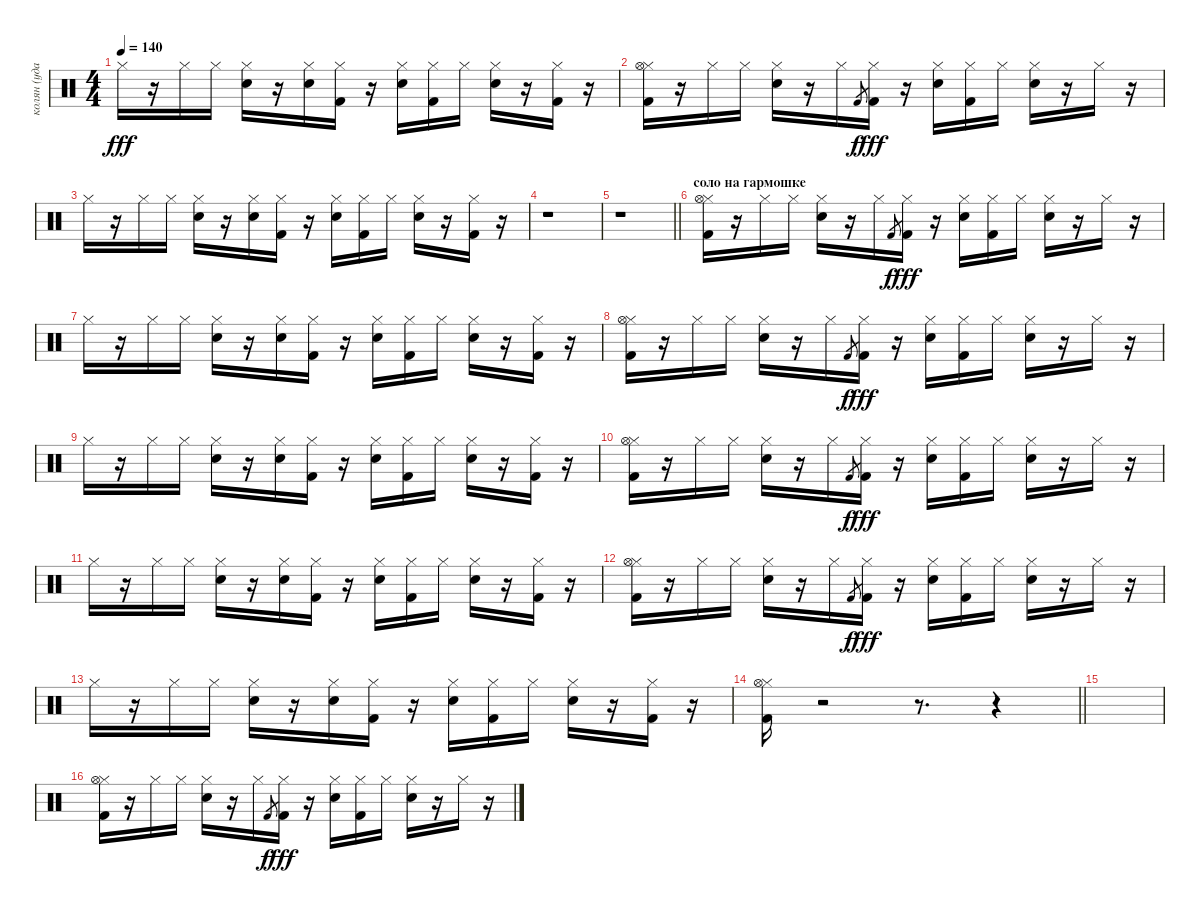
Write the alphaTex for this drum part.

\track ("колян (ударные)" "колян (уда") {instrument percussion}
\staff {score}
\articulation defaults
\ts (4 4)
\tempo 140
\clef neutral
\ks c "Hi-Hat (closed)".16{dy fff}
r.16 "Hi-Hat (closed)".16 "Hi-Hat (closed)".16 ("Hi-Hat (closed)" "Electric Snare (hit)").16 r.16 ("Hi-Hat (closed)" "Electric Snare (hit)").16 ("Hi-Hat (closed)" "Kick (hit) 2").16 r.16 ("Hi-Hat (closed)" "Electric Snare (hit)").16 ("Hi-Hat (closed)" "Kick (hit) 2").16 "Hi-Hat (closed)".16 ("Hi-Hat (closed)" "Electric Snare (hit)").16 r.16 ("Hi-Hat (closed)" "Kick (hit) 2").16 r.16 |
("Hi-Hat (closed)" "Hi-Hat (open)" "Kick (hit) 2").16 r.16 "Hi-Hat (closed)".16 "Hi-Hat (closed)".16 ("Hi-Hat (closed)" "Electric Snare (hit)").16 r.16 "Hi-Hat (closed)".16 "Kick (hit) 2".8{gr dy f} ("Hi-Hat (closed)" "Kick (hit) 2").16{dy fff} r.16 ("Hi-Hat (closed)" "Electric Snare (hit)").16 ("Hi-Hat (closed)" "Kick (hit) 2").16 "Hi-Hat (closed)".16 ("Hi-Hat (closed)" "Electric Snare (hit)").16 r.16 "Hi-Hat (closed)".16 r.16 |
"Hi-Hat (closed)".16 r.16 "Hi-Hat (closed)".16 "Hi-Hat (closed)".16 ("Hi-Hat (closed)" "Electric Snare (hit)").16 r.16 ("Hi-Hat (closed)" "Electric Snare (hit)").16 ("Hi-Hat (closed)" "Kick (hit) 2").16 r.16 ("Hi-Hat (closed)" "Electric Snare (hit)").16 ("Hi-Hat (closed)" "Kick (hit) 2").16 "Hi-Hat (closed)".16 ("Hi-Hat (closed)" "Electric Snare (hit)").16 r.16 ("Hi-Hat (closed)" "Kick (hit) 2").16 r.16 |
r.1 |
\barLineRight lightlight
r.1 |
\section ("" "соло на гармошке")
("Hi-Hat (closed)" "Hi-Hat (open)" "Kick (hit) 2").16 r.16 "Hi-Hat (closed)".16 "Hi-Hat (closed)".16 ("Hi-Hat (closed)" "Electric Snare (hit)").16 r.16 "Hi-Hat (closed)".16 "Kick (hit) 2".8{gr dy f} ("Hi-Hat (closed)" "Kick (hit) 2").16{dy fff} r.16 ("Hi-Hat (closed)" "Electric Snare (hit)").16 ("Hi-Hat (closed)" "Kick (hit) 2").16 "Hi-Hat (closed)".16 ("Hi-Hat (closed)" "Electric Snare (hit)").16 r.16 "Hi-Hat (closed)".16 r.16 |
"Hi-Hat (closed)".16 r.16 "Hi-Hat (closed)".16 "Hi-Hat (closed)".16 ("Hi-Hat (closed)" "Electric Snare (hit)").16 r.16 ("Hi-Hat (closed)" "Electric Snare (hit)").16 ("Hi-Hat (closed)" "Kick (hit) 2").16 r.16 ("Hi-Hat (closed)" "Electric Snare (hit)").16 ("Hi-Hat (closed)" "Kick (hit) 2").16 "Hi-Hat (closed)".16 ("Hi-Hat (closed)" "Electric Snare (hit)").16 r.16 ("Hi-Hat (closed)" "Kick (hit) 2").16 r.16 |
("Hi-Hat (closed)" "Hi-Hat (open)" "Kick (hit) 2").16 r.16 "Hi-Hat (closed)".16 "Hi-Hat (closed)".16 ("Hi-Hat (closed)" "Electric Snare (hit)").16 r.16 "Hi-Hat (closed)".16 "Kick (hit) 2".8{gr dy f} ("Hi-Hat (closed)" "Kick (hit) 2").16{dy fff} r.16 ("Hi-Hat (closed)" "Electric Snare (hit)").16 ("Hi-Hat (closed)" "Kick (hit) 2").16 "Hi-Hat (closed)".16 ("Hi-Hat (closed)" "Electric Snare (hit)").16 r.16 "Hi-Hat (closed)".16 r.16 |
"Hi-Hat (closed)".16 r.16 "Hi-Hat (closed)".16 "Hi-Hat (closed)".16 ("Hi-Hat (closed)" "Electric Snare (hit)").16 r.16 ("Hi-Hat (closed)" "Electric Snare (hit)").16 ("Hi-Hat (closed)" "Kick (hit) 2").16 r.16 ("Hi-Hat (closed)" "Electric Snare (hit)").16 ("Hi-Hat (closed)" "Kick (hit) 2").16 "Hi-Hat (closed)".16 ("Hi-Hat (closed)" "Electric Snare (hit)").16 r.16 ("Hi-Hat (closed)" "Kick (hit) 2").16 r.16 |
("Hi-Hat (closed)" "Hi-Hat (open)" "Kick (hit) 2").16 r.16 "Hi-Hat (closed)".16 "Hi-Hat (closed)".16 ("Hi-Hat (closed)" "Electric Snare (hit)").16 r.16 "Hi-Hat (closed)".16 "Kick (hit) 2".8{gr dy f} ("Hi-Hat (closed)" "Kick (hit) 2").16{dy fff} r.16 ("Hi-Hat (closed)" "Electric Snare (hit)").16 ("Hi-Hat (closed)" "Kick (hit) 2").16 "Hi-Hat (closed)".16 ("Hi-Hat (closed)" "Electric Snare (hit)").16 r.16 "Hi-Hat (closed)".16 r.16 |
"Hi-Hat (closed)".16 r.16 "Hi-Hat (closed)".16 "Hi-Hat (closed)".16 ("Hi-Hat (closed)" "Electric Snare (hit)").16 r.16 ("Hi-Hat (closed)" "Electric Snare (hit)").16 ("Hi-Hat (closed)" "Kick (hit) 2").16 r.16 ("Hi-Hat (closed)" "Electric Snare (hit)").16 ("Hi-Hat (closed)" "Kick (hit) 2").16 "Hi-Hat (closed)".16 ("Hi-Hat (closed)" "Electric Snare (hit)").16 r.16 ("Hi-Hat (closed)" "Kick (hit) 2").16 r.16 |
("Hi-Hat (closed)" "Hi-Hat (open)" "Kick (hit) 2").16 r.16 "Hi-Hat (closed)".16 "Hi-Hat (closed)".16 ("Hi-Hat (closed)" "Electric Snare (hit)").16 r.16 "Hi-Hat (closed)".16 "Kick (hit) 2".8{gr dy f} ("Hi-Hat (closed)" "Kick (hit) 2").16{dy fff} r.16 ("Hi-Hat (closed)" "Electric Snare (hit)").16 ("Hi-Hat (closed)" "Kick (hit) 2").16 "Hi-Hat (closed)".16 ("Hi-Hat (closed)" "Electric Snare (hit)").16 r.16 "Hi-Hat (closed)".16 r.16 |
"Hi-Hat (closed)".16 r.16 "Hi-Hat (closed)".16 "Hi-Hat (closed)".16 ("Hi-Hat (closed)" "Electric Snare (hit)").16 r.16 ("Hi-Hat (closed)" "Electric Snare (hit)").16 ("Hi-Hat (closed)" "Kick (hit) 2").16 r.16 ("Hi-Hat (closed)" "Electric Snare (hit)").16 ("Hi-Hat (closed)" "Kick (hit) 2").16 "Hi-Hat (closed)".16 ("Hi-Hat (closed)" "Electric Snare (hit)").16 r.16 ("Hi-Hat (closed)" "Kick (hit) 2").16 r.16 |
\barLineRight lightlight
("Hi-Hat (closed)" "Hi-Hat (open)" "Kick (hit) 2").16 r.2 r.8{d} r.4 |
|
("Hi-Hat (closed)" "Hi-Hat (open)" "Kick (hit) 2").16 r.16 "Hi-Hat (closed)".16 "Hi-Hat (closed)".16 ("Hi-Hat (closed)" "Electric Snare (hit)").16 r.16 "Hi-Hat (closed)".16 "Kick (hit) 2".8{gr dy f} ("Hi-Hat (closed)" "Kick (hit) 2").16{dy fff} r.16 ("Hi-Hat (closed)" "Electric Snare (hit)").16 ("Hi-Hat (closed)" "Kick (hit) 2").16 "Hi-Hat (closed)".16 ("Hi-Hat (closed)" "Electric Snare (hit)").16 r.16 "Hi-Hat (closed)".16 r.16
